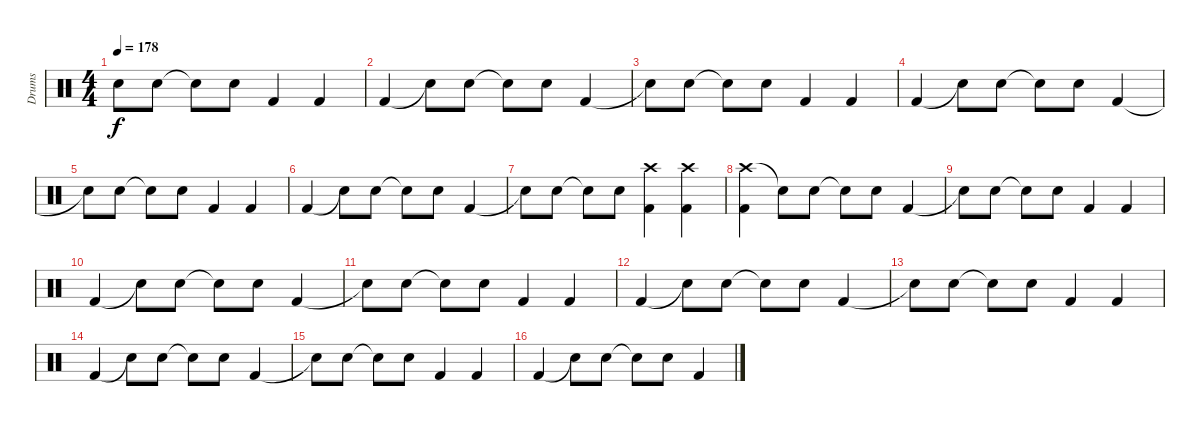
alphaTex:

\track ("Drums" "Drums") {mute instrument percussion}
\staff {score}
\articulation defaults
\ts (4 4)
\tempo 178
\clef neutral
\ks c "Snare (hit)"{t}.8{dy f} "Electric Snare (hit)".8 "Snare (hit)"{t}.8 "Electric Snare (hit)".8 "Kick (hit) 2".4 "Kick (hit) 2".4
|
"Kick (hit) 2".4 "Snare (hit)"{t}.8 "Electric Snare (hit)".8 "Snare (hit)"{t}.8 "Electric Snare (hit)".8 "Kick (hit) 2".4 |
"Snare (hit)"{t}.8 "Electric Snare (hit)".8 "Snare (hit)"{t}.8 "Electric Snare (hit)".8 "Kick (hit) 2".4 "Kick (hit) 2".4 |
"Kick (hit) 2".4 "Snare (hit)"{t}.8 "Electric Snare (hit)".8 "Snare (hit)"{t}.8 "Electric Snare (hit)".8 "Kick (hit) 2".4 |
"Snare (hit)"{t}.8 "Electric Snare (hit)".8 "Snare (hit)"{t}.8 "Electric Snare (hit)".8 "Kick (hit) 2".4 "Kick (hit) 2".4 |
"Kick (hit) 2".4 "Snare (hit)"{t}.8 "Electric Snare (hit)".8 "Snare (hit)"{t}.8 "Electric Snare (hit)".8 "Kick (hit) 2".4 |
"Snare (hit)"{t}.8 "Electric Snare (hit)".8 "Snare (hit)"{t}.8 "Electric Snare (hit)".8 ("Crash high (hit)" "Kick (hit) 2").4 ("Crash high (hit)" "Kick (hit) 2").4 |
("Crash high (hit)" "Kick (hit) 2").4 "Snare (hit)"{t}.8 "Electric Snare (hit)".8 "Snare (hit)"{t}.8 "Electric Snare (hit)".8 "Kick (hit) 2".4 |
"Snare (hit)"{t}.8 "Electric Snare (hit)".8 "Snare (hit)"{t}.8 "Electric Snare (hit)".8 "Kick (hit) 2".4 "Kick (hit) 2".4 |
"Kick (hit) 2".4 "Snare (hit)"{t}.8 "Electric Snare (hit)".8 "Snare (hit)"{t}.8 "Electric Snare (hit)".8 "Kick (hit) 2".4 |
"Snare (hit)"{t}.8 "Electric Snare (hit)".8 "Snare (hit)"{t}.8 "Electric Snare (hit)".8 "Kick (hit) 2".4 "Kick (hit) 2".4 |
"Kick (hit) 2".4 "Snare (hit)"{t}.8 "Electric Snare (hit)".8 "Snare (hit)"{t}.8 "Electric Snare (hit)".8 "Kick (hit) 2".4 |
"Snare (hit)"{t}.8 "Electric Snare (hit)".8 "Snare (hit)"{t}.8 "Electric Snare (hit)".8 "Kick (hit) 2".4 "Kick (hit) 2".4 |
"Kick (hit) 2".4 "Snare (hit)"{t}.8 "Electric Snare (hit)".8 "Snare (hit)"{t}.8 "Electric Snare (hit)".8 "Kick (hit) 2".4 |
"Snare (hit)"{t}.8 "Electric Snare (hit)".8 "Snare (hit)"{t}.8 "Electric Snare (hit)".8 "Kick (hit) 2".4 "Kick (hit) 2".4 |
"Kick (hit) 2".4 "Snare (hit)"{t}.8 "Electric Snare (hit)".8 "Snare (hit)"{t}.8 "Electric Snare (hit)".8 "Kick (hit) 2".4
